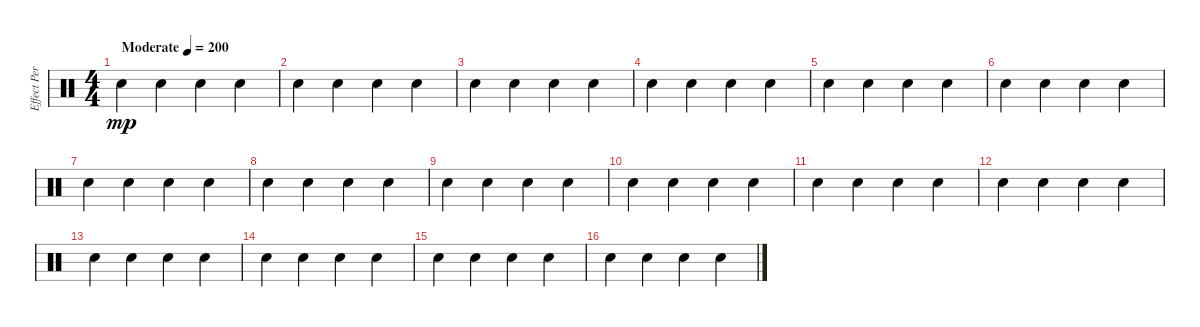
\track ("Effect Percusion" "Effect Per") {instrument percussion}
\staff {score}
\articulation defaults
\ts (4 4)
\tempo (200 "Moderate")
\clef neutral
\ks c "Hand Clap (hit)".4{dy mp} "Hand Clap (hit)".4 "Hand Clap (hit)".4 "Hand Clap (hit)".4
|
"Hand Clap (hit)".4 "Hand Clap (hit)".4 "Hand Clap (hit)".4 "Hand Clap (hit)".4 |
"Hand Clap (hit)".4 "Hand Clap (hit)".4 "Hand Clap (hit)".4 "Hand Clap (hit)".4 |
"Hand Clap (hit)".4 "Hand Clap (hit)".4 "Hand Clap (hit)".4 "Hand Clap (hit)".4 |
"Hand Clap (hit)".4 "Hand Clap (hit)".4 "Hand Clap (hit)".4 "Hand Clap (hit)".4 |
"Hand Clap (hit)".4 "Hand Clap (hit)".4 "Hand Clap (hit)".4 "Hand Clap (hit)".4 |
"Hand Clap (hit)".4 "Hand Clap (hit)".4 "Hand Clap (hit)".4 "Hand Clap (hit)".4 |
"Hand Clap (hit)".4 "Hand Clap (hit)".4 "Hand Clap (hit)".4 "Hand Clap (hit)".4 |
"Hand Clap (hit)".4 "Hand Clap (hit)".4 "Hand Clap (hit)".4 "Hand Clap (hit)".4 |
"Hand Clap (hit)".4 "Hand Clap (hit)".4 "Hand Clap (hit)".4 "Hand Clap (hit)".4 |
"Hand Clap (hit)".4 "Hand Clap (hit)".4 "Hand Clap (hit)".4 "Hand Clap (hit)".4 |
"Hand Clap (hit)".4 "Hand Clap (hit)".4 "Hand Clap (hit)".4 "Hand Clap (hit)".4 |
"Hand Clap (hit)".4 "Hand Clap (hit)".4 "Hand Clap (hit)".4 "Hand Clap (hit)".4 |
"Hand Clap (hit)".4 "Hand Clap (hit)".4 "Hand Clap (hit)".4 "Hand Clap (hit)".4 |
"Hand Clap (hit)".4 "Hand Clap (hit)".4 "Hand Clap (hit)".4 "Hand Clap (hit)".4 |
"Hand Clap (hit)".4 "Hand Clap (hit)".4 "Hand Clap (hit)".4 "Hand Clap (hit)".4
